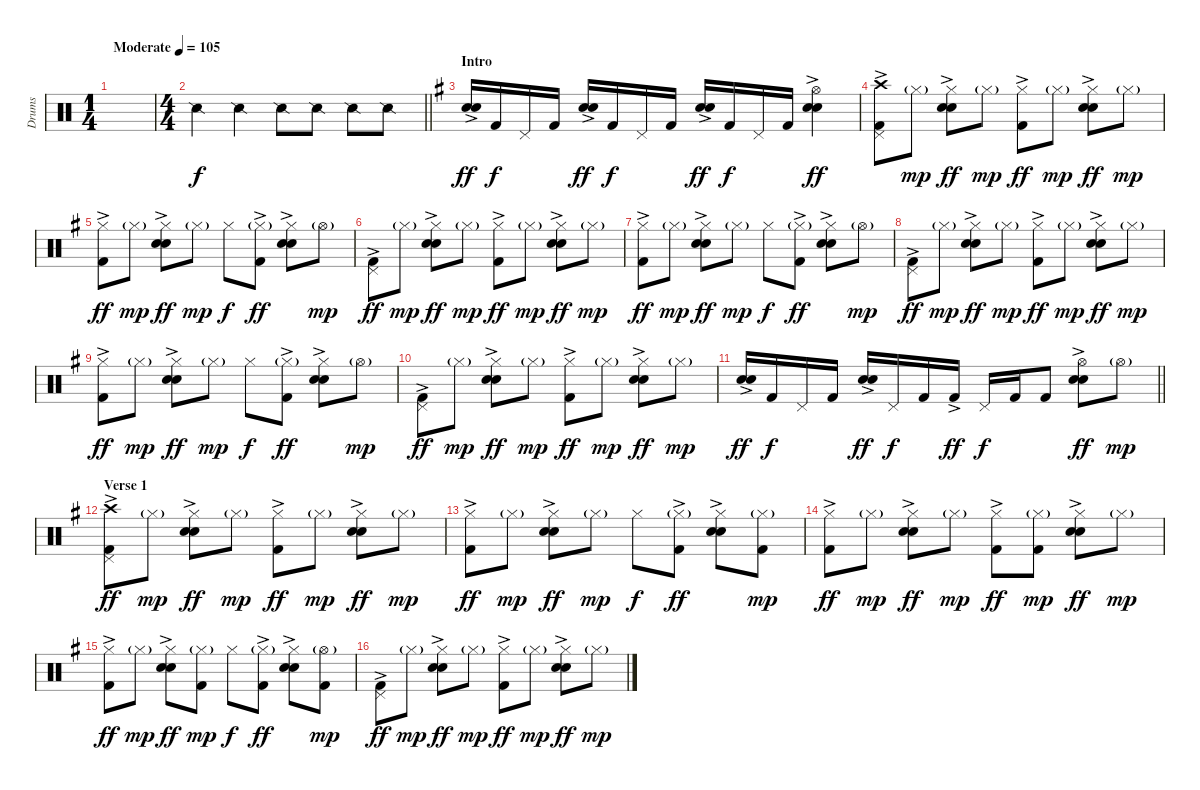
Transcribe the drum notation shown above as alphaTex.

\track ("Drums" "Drums") {instrument percussion}
\staff {score}
\articulation defaults
\ts (1 4)
\tempo (105 "Moderate")
\clef neutral
\ks c
|
\ts (4 4)
\barLineRight lightlight "Snare (side stick) 2".4 "Snare (side stick) 2".4 "Snare (side stick) 2".8 "Snare (side stick) 2".8 "Snare (side stick) 2".8 "Snare (side stick) 2".8
|
\section ("" "Intro")
\ks g
("Electric Snare (hit)"{ac} "Snare (hit) 2").16{dy ff} "Kick (hit) 2".16{dy f} "Pedal Hi-Hat (hit)".16 "Kick (hit) 2".16 ("Electric Snare (hit)"{ac} "Snare (hit) 2").16{dy ff} "Kick (hit) 2".16{dy f} "Pedal Hi-Hat (hit)".16 "Kick (hit) 2".16 ("Electric Snare (hit)"{ac} "Snare (hit) 2").16{dy ff} "Kick (hit) 2".16{dy f} "Pedal Hi-Hat (hit)".16 "Kick (hit) 2".16 ("Hi-Hat (open)" "Electric Snare (hit)"{ac} "Snare (hit) 2").4{dy ff} |
("Pedal Hi-Hat (hit)" "Crash high (hit)" "Kick (hit) 2"{ac}).8 "Hi-Hat (closed)"{g}.8{dy mp} ("Hi-Hat (closed)" "Electric Snare (hit)"{ac} "Snare (hit) 2").8{dy ff} "Hi-Hat (closed)"{g}.8{dy mp} ("Hi-Hat (closed)" "Kick (hit) 2"{ac}).8{dy ff} "Hi-Hat (closed)"{g}.8{dy mp} ("Hi-Hat (closed)" "Electric Snare (hit)"{ac} "Snare (hit) 2").8{dy ff} "Hi-Hat (closed)"{g}.8{dy mp} |
("Hi-Hat (closed)" "Kick (hit) 2"{ac}).8{dy ff} "Hi-Hat (closed)"{g}.8{dy mp} ("Hi-Hat (closed)" "Electric Snare (hit)"{ac} "Snare (hit) 2").8{dy ff} "Hi-Hat (closed)"{g}.8{dy mp} "Hi-Hat (closed)".8{dy f} ("Hi-Hat (closed)"{g} "Kick (hit) 2"{ac}).8{dy ff} ("Hi-Hat (closed)" "Electric Snare (hit)"{ac} "Snare (hit) 2").8 "Hi-Hat (open)"{g}.8{dy mp} |
("Pedal Hi-Hat (hit)" "Kick (hit) 2"{ac}).8{dy ff} "Hi-Hat (closed)"{g}.8{dy mp} ("Hi-Hat (closed)" "Electric Snare (hit)"{ac} "Snare (hit) 2").8{dy ff} "Hi-Hat (closed)"{g}.8{dy mp} ("Hi-Hat (closed)" "Kick (hit) 2"{ac}).8{dy ff} "Hi-Hat (closed)"{g}.8{dy mp} ("Hi-Hat (closed)" "Electric Snare (hit)"{ac} "Snare (hit) 2").8{dy ff} "Hi-Hat (closed)"{g}.8{dy mp} |
("Hi-Hat (closed)" "Kick (hit) 2"{ac}).8{dy ff} "Hi-Hat (closed)"{g}.8{dy mp} ("Hi-Hat (closed)" "Electric Snare (hit)"{ac} "Snare (hit) 2").8{dy ff} "Hi-Hat (closed)"{g}.8{dy mp} "Hi-Hat (closed)".8{dy f} ("Hi-Hat (closed)"{g} "Kick (hit) 2"{ac}).8{dy ff} ("Hi-Hat (closed)" "Electric Snare (hit)"{ac} "Snare (hit) 2").8 "Hi-Hat (open)"{g}.8{dy mp} |
("Pedal Hi-Hat (hit)" "Kick (hit) 2"{ac}).8{dy ff} "Hi-Hat (closed)"{g}.8{dy mp} ("Hi-Hat (closed)" "Electric Snare (hit)"{ac} "Snare (hit) 2").8{dy ff} "Hi-Hat (closed)"{g}.8{dy mp} ("Hi-Hat (closed)" "Kick (hit) 2"{ac}).8{dy ff} "Hi-Hat (closed)"{g}.8{dy mp} ("Hi-Hat (closed)" "Electric Snare (hit)"{ac} "Snare (hit) 2").8{dy ff} "Hi-Hat (closed)"{g}.8{dy mp} |
("Hi-Hat (closed)" "Kick (hit) 2"{ac}).8{dy ff} "Hi-Hat (closed)"{g}.8{dy mp} ("Hi-Hat (closed)" "Electric Snare (hit)"{ac} "Snare (hit) 2").8{dy ff} "Hi-Hat (closed)"{g}.8{dy mp} "Hi-Hat (closed)".8{dy f} ("Hi-Hat (closed)"{g} "Kick (hit) 2"{ac}).8{dy ff} ("Hi-Hat (closed)" "Electric Snare (hit)"{ac} "Snare (hit) 2").8 "Hi-Hat (open)"{g}.8{dy mp} |
("Pedal Hi-Hat (hit)" "Kick (hit) 2"{ac}).8{dy ff} "Hi-Hat (closed)"{g}.8{dy mp} ("Hi-Hat (closed)" "Electric Snare (hit)"{ac} "Snare (hit) 2").8{dy ff} "Hi-Hat (closed)"{g}.8{dy mp} ("Hi-Hat (closed)" "Kick (hit) 2"{ac}).8{dy ff} "Hi-Hat (closed)"{g}.8{dy mp} ("Hi-Hat (closed)" "Electric Snare (hit)"{ac} "Snare (hit) 2").8{dy ff} "Hi-Hat (closed)"{g}.8{dy mp} |
\barLineRight lightlight
("Electric Snare (hit)"{ac} "Snare (hit) 2").16{dy ff} "Kick (hit) 2".16{dy f} "Pedal Hi-Hat (hit)".16 "Kick (hit) 2".16 ("Electric Snare (hit)"{ac} "Snare (hit) 2").16{dy ff} "Pedal Hi-Hat (hit)".16{dy f} "Kick (hit) 2".16 "Kick (hit) 2"{ac}.16{dy ff} "Pedal Hi-Hat (hit)".16{dy f} "Kick (hit) 2".16 "Kick (hit) 2".8 ("Hi-Hat (open)" "Electric Snare (hit)"{ac} "Snare (hit) 2").8{dy ff} "Hi-Hat (open)"{g}.8{dy mp} |
\section ("" "Verse 1")
("Pedal Hi-Hat (hit)" "Crash high (hit)" "Kick (hit) 2"{ac}).8{dy ff} "Hi-Hat (closed)"{g}.8{dy mp} ("Hi-Hat (closed)" "Electric Snare (hit)"{ac} "Snare (hit) 2").8{dy ff} "Hi-Hat (closed)"{g}.8{dy mp} ("Hi-Hat (closed)" "Kick (hit) 2"{ac}).8{dy ff} "Hi-Hat (closed)"{g}.8{dy mp} ("Hi-Hat (closed)" "Electric Snare (hit)"{ac} "Snare (hit) 2").8{dy ff} "Hi-Hat (closed)"{g}.8{dy mp} |
("Hi-Hat (closed)" "Kick (hit) 2"{ac}).8{dy ff} "Hi-Hat (closed)"{g}.8{dy mp} ("Hi-Hat (closed)" "Electric Snare (hit)"{ac} "Snare (hit) 2").8{dy ff} "Hi-Hat (closed)"{g}.8{dy mp} "Hi-Hat (closed)".8{dy f} ("Hi-Hat (closed)"{g} "Kick (hit) 2"{ac}).8{dy ff} ("Hi-Hat (closed)" "Electric Snare (hit)"{ac} "Snare (hit) 2").8 ("Hi-Hat (closed)"{g} "Kick (hit) 2").8{dy mp} |
("Hi-Hat (closed)" "Kick (hit) 2"{ac}).8{dy ff} "Hi-Hat (closed)"{g}.8{dy mp} ("Hi-Hat (closed)" "Electric Snare (hit)"{ac} "Snare (hit) 2").8{dy ff} "Hi-Hat (closed)"{g}.8{dy mp} ("Hi-Hat (closed)" "Kick (hit) 2"{ac}).8{dy ff} ("Hi-Hat (closed)"{g} "Kick (hit) 2").8{dy mp} ("Hi-Hat (closed)" "Electric Snare (hit)"{ac} "Snare (hit) 2").8{dy ff} "Hi-Hat (closed)"{g}.8{dy mp} |
("Hi-Hat (closed)" "Kick (hit) 2"{ac}).8{dy ff} "Hi-Hat (closed)"{g}.8{dy mp} ("Hi-Hat (closed)" "Electric Snare (hit)"{ac} "Snare (hit) 2").8{dy ff} ("Hi-Hat (closed)"{g} "Kick (hit) 2").8{dy mp} "Hi-Hat (closed)".8{dy f} ("Hi-Hat (closed)"{g} "Kick (hit) 2"{ac}).8{dy ff} ("Hi-Hat (closed)" "Electric Snare (hit)"{ac} "Snare (hit) 2").8 ("Hi-Hat (open)"{g} "Kick (hit) 2").8{dy mp} |
("Pedal Hi-Hat (hit)" "Kick (hit) 2"{ac}).8{dy ff} "Hi-Hat (closed)"{g}.8{dy mp} ("Hi-Hat (closed)" "Electric Snare (hit)"{ac} "Snare (hit) 2").8{dy ff} "Hi-Hat (closed)"{g}.8{dy mp} ("Hi-Hat (closed)" "Kick (hit) 2"{ac}).8{dy ff} "Hi-Hat (closed)"{g}.8{dy mp} ("Hi-Hat (closed)" "Electric Snare (hit)"{ac} "Snare (hit) 2").8{dy ff} "Hi-Hat (closed)"{g}.8{dy mp}
